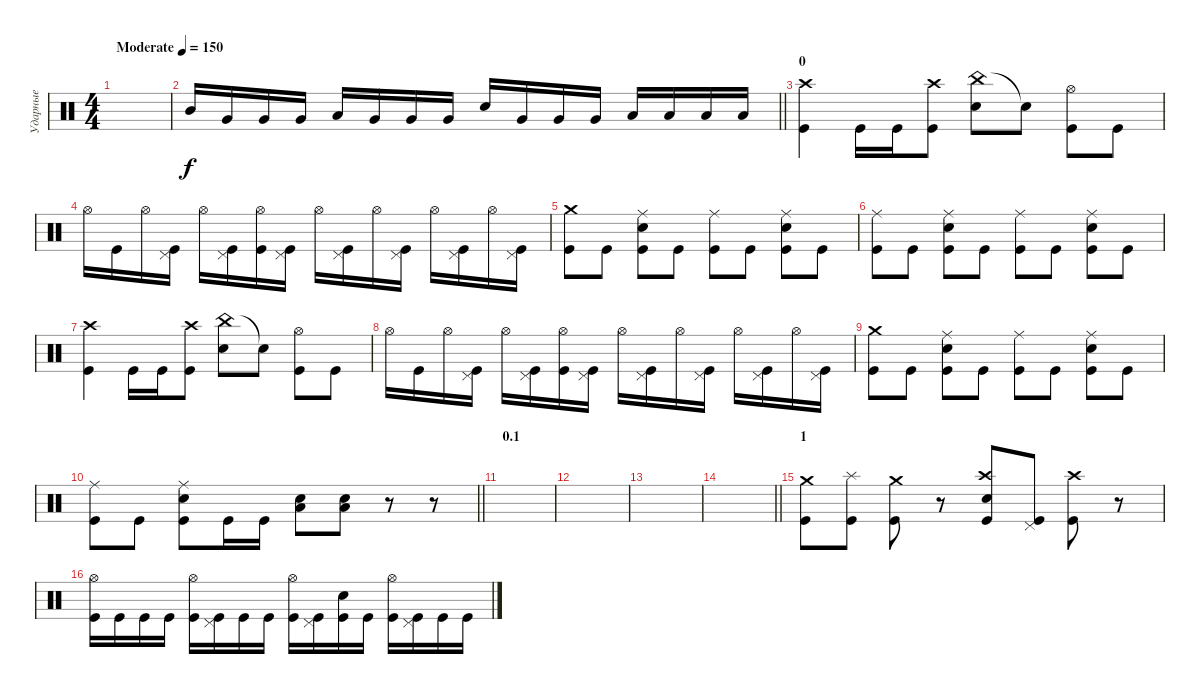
\track ("Ударные" "Ударные") {instrument percussion}
\staff {score}
\articulation defaults
\ts (4 4)
\tempo (150 "Moderate")
\clef neutral
\ks c
|
\barLineRight lightlight "Mid Tom (hit)".16 "Very Low Tom (hit)".16 "Very Low Tom (hit)".16 "Very Low Tom (hit)".16 "Low Tom (hit)".16 "Very Low Tom (hit)".16 "Very Low Tom (hit)".16 "Very Low Tom (hit)".16 "Electric Snare (hit)".16 "Very Low Tom (hit)".16 "Very Low Tom (hit)".16 "Very Low Tom (hit)".16 "Low Floor Tom (hit)".16 "Low Floor Tom (hit)".16 "Low Floor Tom (hit)".16 "Low Floor Tom (hit)".16
|
\section ("" "0")
("Crash high (hit)" "Kick (hit)").4 "Kick (hit)".16 "Kick (hit)".16 ("Crash high (hit)" "Kick (hit)").8 ("China (hit)" "Electric Snare (hit)").8 "Snare (hit)"{t}.8 ("Hi-Hat (open)" "Kick (hit)").8 "Kick (hit)".8 |
"Hi-Hat (open)".16 "Kick (hit)".16 "Hi-Hat (open)".16 ("Pedal Hi-Hat (hit)" "Kick (hit)").16 "Hi-Hat (open)".16 ("Pedal Hi-Hat (hit)" "Kick (hit)").16 ("Hi-Hat (open)" "Kick (hit)").16 ("Pedal Hi-Hat (hit)" "Kick (hit)").16 "Hi-Hat (open)".16 ("Pedal Hi-Hat (hit)" "Kick (hit)").16 "Hi-Hat (open)".16 ("Pedal Hi-Hat (hit)" "Kick (hit)").16 "Hi-Hat (open)".16 ("Pedal Hi-Hat (hit)" "Kick (hit)").16 "Hi-Hat (open)".16 ("Pedal Hi-Hat (hit)" "Kick (hit)").16 |
("Crash medium (hit)" "Kick (hit)").8 "Kick (hit)".8 ("Ride (middle)" "Electric Snare (hit)" "Kick (hit)").8 "Kick (hit)".8 ("Ride (middle)" "Kick (hit)").8 "Kick (hit)".8 ("Ride (middle)" "Electric Snare (hit)" "Kick (hit)").8 "Kick (hit)".8 |
("Ride (middle)" "Kick (hit)").8 "Kick (hit)".8 ("Ride (middle)" "Electric Snare (hit)" "Kick (hit)").8 "Kick (hit)".8 ("Ride (middle)" "Kick (hit)").8 "Kick (hit)".8 ("Ride (middle)" "Electric Snare (hit)" "Kick (hit)").8 "Kick (hit)".8 |
("Crash high (hit)" "Kick (hit)").4 "Kick (hit)".16 "Kick (hit)".16 ("Crash high (hit)" "Kick (hit)").8 ("China (hit)" "Electric Snare (hit)").8 "Snare (hit)"{t}.8 ("Hi-Hat (open)" "Kick (hit)").8 "Kick (hit)".8 |
"Hi-Hat (open)".16 "Kick (hit)".16 "Hi-Hat (open)".16 ("Pedal Hi-Hat (hit)" "Kick (hit)").16 "Hi-Hat (open)".16 ("Pedal Hi-Hat (hit)" "Kick (hit)").16 ("Hi-Hat (open)" "Kick (hit)").16 ("Pedal Hi-Hat (hit)" "Kick (hit)").16 "Hi-Hat (open)".16 ("Pedal Hi-Hat (hit)" "Kick (hit)").16 "Hi-Hat (open)".16 ("Pedal Hi-Hat (hit)" "Kick (hit)").16 "Hi-Hat (open)".16 ("Pedal Hi-Hat (hit)" "Kick (hit)").16 "Hi-Hat (open)".16 ("Pedal Hi-Hat (hit)" "Kick (hit)").16 |
("Crash medium (hit)" "Kick (hit)").8 "Kick (hit)".8 ("Ride (middle)" "Electric Snare (hit)" "Kick (hit)").8 "Kick (hit)".8 ("Ride (middle)" "Kick (hit)").8 "Kick (hit)".8 ("Ride (middle)" "Electric Snare (hit)" "Kick (hit)").8 "Kick (hit)".8 |
\barLineRight lightlight
("Ride (middle)" "Kick (hit)").8 "Kick (hit)".8 ("Ride (middle)" "Electric Snare (hit)" "Kick (hit)").8 "Kick (hit)".16 "Kick (hit)".16 ("Low Floor Tom (hit)" "Electric Snare (hit)").8 ("Low Floor Tom (hit)" "Electric Snare (hit)").8 r.8 r.8 |
\section ("" "0.1")
|
|
|
\barLineRight lightlight
|
\section ("" "1")
("Crash medium (hit)" "Kick (hit)").8 ("Splash (hit)" "Kick (hit)").8 ("Crash medium (hit)" "Kick (hit)").8 r.8 ("Crash high (hit)" "Electric Snare (hit)" "Kick (hit)").8 ("Pedal Hi-Hat (hit)" "Kick (hit)").8 ("Crash high (hit)" "Kick (hit)").8 r.8 |
("Hi-Hat (open)" "Kick (hit)").16 "Kick (hit)".16 "Kick (hit)".16 "Kick (hit)".16 ("Hi-Hat (open)" "Kick (hit)").16 ("Pedal Hi-Hat (hit)" "Kick (hit)").16 "Kick (hit)".16 "Kick (hit)".16 ("Hi-Hat (open)" "Kick (hit)").16 ("Pedal Hi-Hat (hit)" "Kick (hit)").16 ("Electric Snare (hit)" "Kick (hit)").16 "Kick (hit)".16 ("Hi-Hat (open)" "Kick (hit)").16 ("Pedal Hi-Hat (hit)" "Kick (hit)").16 "Kick (hit)".16 "Kick (hit)".16
